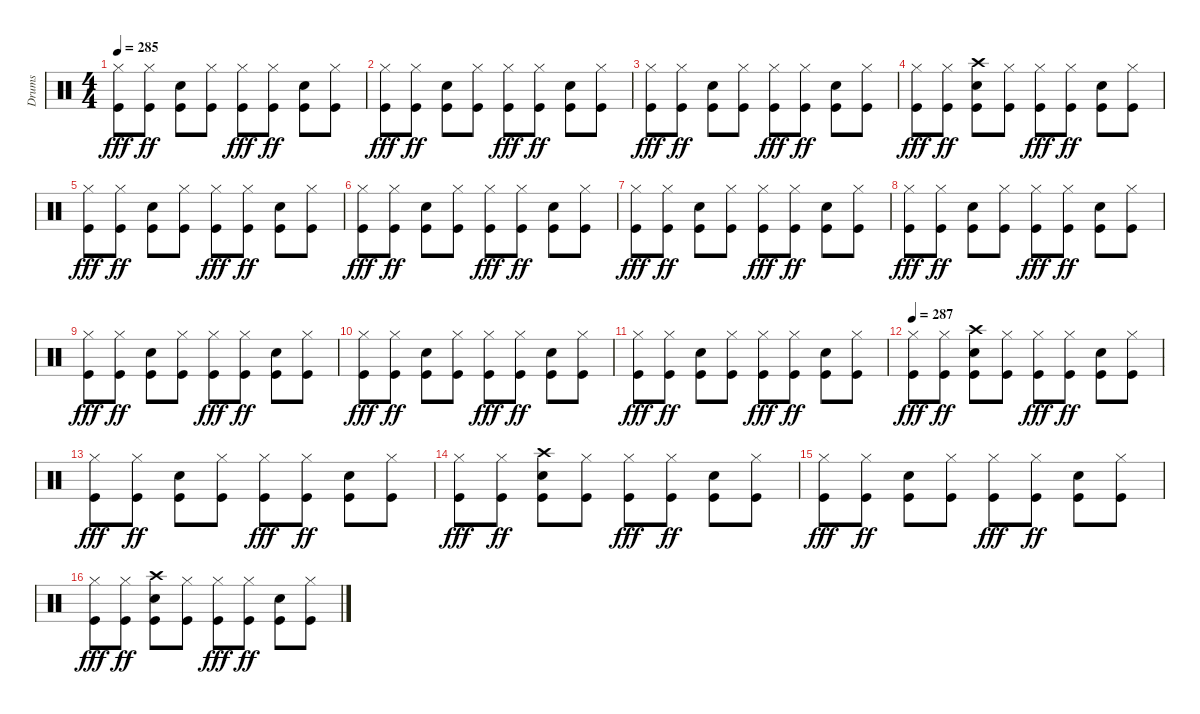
\track ("Drums" "Drums") {instrument percussion}
\staff {score}
\articulation defaults
\ts (4 4)
\tempo 285
\clef neutral
\ks c
("Hi-Hat (closed)" "Kick (hit)").8{dy fff} ("Hi-Hat (closed)" "Kick (hit)").8{dy ff} ("Snare (hit) 2" "Kick (hit)").8 ("Hi-Hat (closed)" "Kick (hit)").8 ("Hi-Hat (closed)" "Kick (hit)").8{dy fff} ("Hi-Hat (closed)" "Kick (hit)").8{dy ff} ("Snare (hit) 2" "Kick (hit)").8 ("Hi-Hat (closed)" "Kick (hit)").8 |
("Hi-Hat (closed)" "Kick (hit)").8{dy fff} ("Hi-Hat (closed)" "Kick (hit)").8{dy ff} ("Snare (hit) 2" "Kick (hit)").8 ("Hi-Hat (closed)" "Kick (hit)").8 ("Hi-Hat (closed)" "Kick (hit)").8{dy fff} ("Hi-Hat (closed)" "Kick (hit)").8{dy ff} ("Snare (hit) 2" "Kick (hit)").8 ("Hi-Hat (closed)" "Kick (hit)").8 |
("Hi-Hat (closed)" "Kick (hit)").8{dy fff} ("Hi-Hat (closed)" "Kick (hit)").8{dy ff} ("Snare (hit) 2" "Kick (hit)").8 ("Hi-Hat (closed)" "Kick (hit)").8 ("Hi-Hat (closed)" "Kick (hit)").8{dy fff} ("Hi-Hat (closed)" "Kick (hit)").8{dy ff} ("Snare (hit) 2" "Kick (hit)").8 ("Hi-Hat (closed)" "Kick (hit)").8 |
("Hi-Hat (closed)" "Kick (hit)").8{dy fff} ("Hi-Hat (closed)" "Kick (hit)").8{dy ff} ("Crash high (hit)" "Snare (hit) 2" "Kick (hit)").8 ("Hi-Hat (closed)" "Kick (hit)").8 ("Hi-Hat (closed)" "Kick (hit)").8{dy fff} ("Hi-Hat (closed)" "Kick (hit)").8{dy ff} ("Snare (hit) 2" "Kick (hit)").8 ("Hi-Hat (closed)" "Kick (hit)").8 |
("Hi-Hat (closed)" "Kick (hit)").8{dy fff} ("Hi-Hat (closed)" "Kick (hit)").8{dy ff} ("Snare (hit) 2" "Kick (hit)").8 ("Hi-Hat (closed)" "Kick (hit)").8 ("Hi-Hat (closed)" "Kick (hit)").8{dy fff} ("Hi-Hat (closed)" "Kick (hit)").8{dy ff} ("Snare (hit) 2" "Kick (hit)").8 ("Hi-Hat (closed)" "Kick (hit)").8 |
("Hi-Hat (closed)" "Kick (hit)").8{dy fff} ("Hi-Hat (closed)" "Kick (hit)").8{dy ff} ("Snare (hit) 2" "Kick (hit)").8 ("Hi-Hat (closed)" "Kick (hit)").8 ("Hi-Hat (closed)" "Kick (hit)").8{dy fff} ("Hi-Hat (closed)" "Kick (hit)").8{dy ff} ("Snare (hit) 2" "Kick (hit)").8 ("Hi-Hat (closed)" "Kick (hit)").8 |
("Hi-Hat (closed)" "Kick (hit)").8{dy fff} ("Hi-Hat (closed)" "Kick (hit)").8{dy ff} ("Snare (hit) 2" "Kick (hit)").8 ("Hi-Hat (closed)" "Kick (hit)").8 ("Hi-Hat (closed)" "Kick (hit)").8{dy fff} ("Hi-Hat (closed)" "Kick (hit)").8{dy ff} ("Snare (hit) 2" "Kick (hit)").8 ("Hi-Hat (closed)" "Kick (hit)").8 |
("Hi-Hat (closed)" "Kick (hit)").8{dy fff} ("Hi-Hat (closed)" "Kick (hit)").8{dy ff} ("Snare (hit) 2" "Kick (hit)").8 ("Hi-Hat (closed)" "Kick (hit)").8 ("Hi-Hat (closed)" "Kick (hit)").8{dy fff} ("Hi-Hat (closed)" "Kick (hit)").8{dy ff} ("Snare (hit) 2" "Kick (hit)").8 ("Hi-Hat (closed)" "Kick (hit)").8 |
("Hi-Hat (closed)" "Kick (hit)").8{dy fff} ("Hi-Hat (closed)" "Kick (hit)").8{dy ff} ("Snare (hit) 2" "Kick (hit)").8 ("Hi-Hat (closed)" "Kick (hit)").8 ("Hi-Hat (closed)" "Kick (hit)").8{dy fff} ("Hi-Hat (closed)" "Kick (hit)").8{dy ff} ("Snare (hit) 2" "Kick (hit)").8 ("Hi-Hat (closed)" "Kick (hit)").8 |
("Hi-Hat (closed)" "Kick (hit)").8{dy fff} ("Hi-Hat (closed)" "Kick (hit)").8{dy ff} ("Snare (hit) 2" "Kick (hit)").8 ("Hi-Hat (closed)" "Kick (hit)").8 ("Hi-Hat (closed)" "Kick (hit)").8{dy fff} ("Hi-Hat (closed)" "Kick (hit)").8{dy ff} ("Snare (hit) 2" "Kick (hit)").8 ("Hi-Hat (closed)" "Kick (hit)").8 |
("Hi-Hat (closed)" "Kick (hit)").8{dy fff} ("Hi-Hat (closed)" "Kick (hit)").8{dy ff} ("Snare (hit) 2" "Kick (hit)").8 ("Hi-Hat (closed)" "Kick (hit)").8 ("Hi-Hat (closed)" "Kick (hit)").8{dy fff} ("Hi-Hat (closed)" "Kick (hit)").8{dy ff} ("Snare (hit) 2" "Kick (hit)").8 ("Hi-Hat (closed)" "Kick (hit)").8 |
\tempo 287
("Hi-Hat (closed)" "Kick (hit)").8{dy fff} ("Hi-Hat (closed)" "Kick (hit)").8{dy ff} ("Crash high (hit)" "Snare (hit) 2" "Kick (hit)").8 ("Hi-Hat (closed)" "Kick (hit)").8 ("Hi-Hat (closed)" "Kick (hit)").8{dy fff} ("Hi-Hat (closed)" "Kick (hit)").8{dy ff} ("Snare (hit) 2" "Kick (hit)").8 ("Hi-Hat (closed)" "Kick (hit)").8 |
("Hi-Hat (closed)" "Kick (hit)").8{dy fff} ("Hi-Hat (closed)" "Kick (hit)").8{dy ff} ("Snare (hit) 2" "Kick (hit)").8 ("Hi-Hat (closed)" "Kick (hit)").8 ("Hi-Hat (closed)" "Kick (hit)").8{dy fff} ("Hi-Hat (closed)" "Kick (hit)").8{dy ff} ("Snare (hit) 2" "Kick (hit)").8 ("Hi-Hat (closed)" "Kick (hit)").8 |
("Hi-Hat (closed)" "Kick (hit)").8{dy fff} ("Hi-Hat (closed)" "Kick (hit)").8{dy ff} ("Crash high (hit)" "Snare (hit) 2" "Kick (hit)").8 ("Hi-Hat (closed)" "Kick (hit)").8 ("Hi-Hat (closed)" "Kick (hit)").8{dy fff} ("Hi-Hat (closed)" "Kick (hit)").8{dy ff} ("Snare (hit) 2" "Kick (hit)").8 ("Hi-Hat (closed)" "Kick (hit)").8 |
("Hi-Hat (closed)" "Kick (hit)").8{dy fff} ("Hi-Hat (closed)" "Kick (hit)").8{dy ff} ("Snare (hit) 2" "Kick (hit)").8 ("Hi-Hat (closed)" "Kick (hit)").8 ("Hi-Hat (closed)" "Kick (hit)").8{dy fff} ("Hi-Hat (closed)" "Kick (hit)").8{dy ff} ("Snare (hit) 2" "Kick (hit)").8 ("Hi-Hat (closed)" "Kick (hit)").8 |
("Hi-Hat (closed)" "Kick (hit)").8{dy fff} ("Hi-Hat (closed)" "Kick (hit)").8{dy ff} ("Crash high (hit)" "Snare (hit) 2" "Kick (hit)").8 ("Hi-Hat (closed)" "Kick (hit)").8 ("Hi-Hat (closed)" "Kick (hit)").8{dy fff} ("Hi-Hat (closed)" "Kick (hit)").8{dy ff} ("Snare (hit) 2" "Kick (hit)").8 ("Hi-Hat (closed)" "Kick (hit)").8
